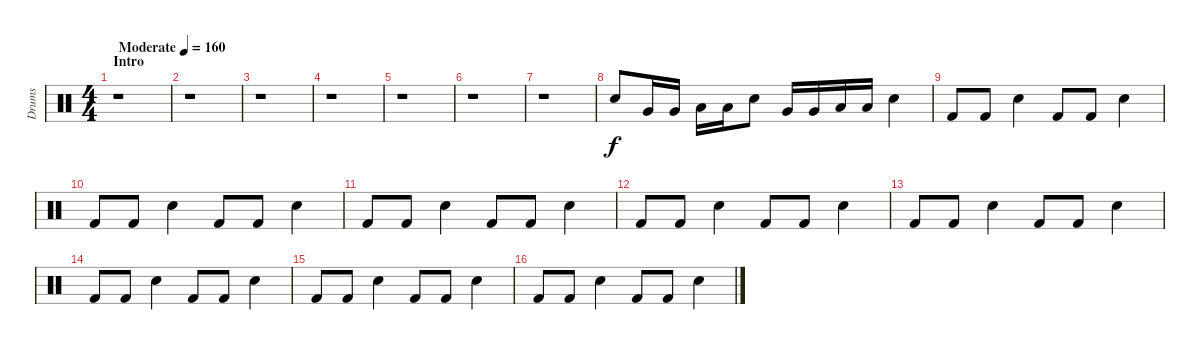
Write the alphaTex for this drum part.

\track ("Drums" "Drums") {instrument percussion}
\staff {score}
\articulation defaults
\ts (4 4)
\section ("" "Intro")
\tempo (160 "Moderate")
\clef neutral
\ks c
r.1{dy f} |
r.1 |
r.1 |
r.1 |
r.1 |
r.1 |
r.1 |
"Electric Snare (hit)".8 "Very Low Tom (hit)".16 "Very Low Tom (hit)".16 "Low Floor Tom (hit)".16 "Low Floor Tom (hit)".16 "Electric Snare (hit)".8 "Very Low Tom (hit)".16 "Very Low Tom (hit)".16 "Low Floor Tom (hit)".16 "Low Floor Tom (hit)".16 "Electric Snare (hit)".4 |
"Kick (hit) 2".8 "Kick (hit) 2".8 "Electric Snare (hit)".4 "Kick (hit) 2".8 "Kick (hit) 2".8 "Electric Snare (hit)".4 |
"Kick (hit) 2".8 "Kick (hit) 2".8 "Electric Snare (hit)".4 "Kick (hit) 2".8 "Kick (hit) 2".8 "Electric Snare (hit)".4 |
"Kick (hit) 2".8 "Kick (hit) 2".8 "Electric Snare (hit)".4 "Kick (hit) 2".8 "Kick (hit) 2".8 "Electric Snare (hit)".4 |
"Kick (hit) 2".8 "Kick (hit) 2".8 "Electric Snare (hit)".4 "Kick (hit) 2".8 "Kick (hit) 2".8 "Electric Snare (hit)".4 |
"Kick (hit) 2".8 "Kick (hit) 2".8 "Electric Snare (hit)".4 "Kick (hit) 2".8 "Kick (hit) 2".8 "Electric Snare (hit)".4 |
"Kick (hit) 2".8 "Kick (hit) 2".8 "Electric Snare (hit)".4 "Kick (hit) 2".8 "Kick (hit) 2".8 "Electric Snare (hit)".4 |
"Kick (hit) 2".8 "Kick (hit) 2".8 "Electric Snare (hit)".4 "Kick (hit) 2".8 "Kick (hit) 2".8 "Electric Snare (hit)".4 |
"Kick (hit) 2".8 "Kick (hit) 2".8 "Electric Snare (hit)".4 "Kick (hit) 2".8 "Kick (hit) 2".8 "Electric Snare (hit)".4
